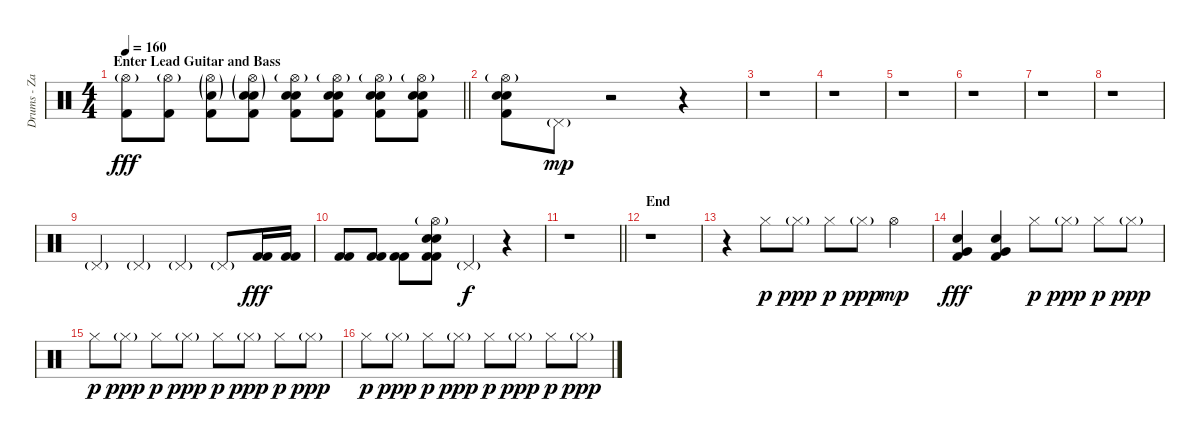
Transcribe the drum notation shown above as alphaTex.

\track ("Drums - Zac Farro" "Drums - Za") {instrument percussion}
\staff {score}
\articulation defaults
\ts (4 4)
\section ("" "Enter Lead Guitar and Bass")
\tempo 160
\clef neutral
\barLineRight lightlight
\ks c
("Hi-Hat (open)"{g} "Kick (hit) 2").8{dy fff} ("Hi-Hat (open)"{g} "Kick (hit) 2").8 ("Hi-Hat (open)"{g} "Electric Snare (hit)"{g} "Kick (hit) 2").8 ("Hi-Hat (open)"{g} "Electric Snare (hit)"{g} "Electric Snare (hit)"{g} "Kick (hit) 2").8 ("Hi-Hat (open)"{g} "Electric Snare (hit)" "Electric Snare (hit)" "Kick (hit) 2").8 ("Hi-Hat (open)"{g} "Electric Snare (hit)" "Electric Snare (hit)" "Kick (hit) 2").8 ("Hi-Hat (open)"{g} "Electric Snare (hit)" "Electric Snare (hit)" "Kick (hit) 2").8 ("Hi-Hat (open)"{g} "Electric Snare (hit)" "Electric Snare (hit)" "Kick (hit) 2").8 |
("Hi-Hat (open)"{g} "Electric Snare (hit)" "Electric Snare (hit)" "Kick (hit) 2").8 "Pedal Hi-Hat (hit)"{g}.8{dy mp} r.2 r.4 |
r.1 |
r.1 |
r.1 |
r.1 |
r.1 |
r.1 |
"Pedal Hi-Hat (hit)"{g}.4 "Pedal Hi-Hat (hit)"{g}.4 "Pedal Hi-Hat (hit)"{g}.4 "Pedal Hi-Hat (hit)"{g}.8 ("Kick (hit) 2" "Kick (hit) 2").16{dy fff} ("Kick (hit) 2" "Kick (hit) 2").16 |
("Kick (hit) 2" "Kick (hit) 2").8 ("Kick (hit) 2" "Kick (hit) 2").8 ("Kick (hit) 2" "Kick (hit) 2").8 ("Hi-Hat (open)"{g} "Electric Snare (hit)" "Electric Snare (hit)" "Kick (hit) 2" "Kick (hit) 2").8 "Pedal Hi-Hat (hit)"{g}.4{dy f} r.4 |
\barLineRight lightlight
r.1 |
\section ("" "End")
r.1 |
r.4 "Hi-Hat (closed)".8{dy p} "Hi-Hat (closed)"{g}.8{dy ppp} "Hi-Hat (closed)".8{dy p} "Hi-Hat (closed)"{g}.8{dy ppp} "Hi-Hat (open)".4{dy mp} |
("Electric Snare (hit)" "Very Low Tom (hit)" "Kick (hit) 2").4{dy fff} ("Electric Snare (hit)" "Very Low Tom (hit)" "Kick (hit) 2").4 "Hi-Hat (closed)".8{dy p} "Hi-Hat (closed)"{g}.8{dy ppp} "Hi-Hat (closed)".8{dy p} "Hi-Hat (closed)"{g}.8{dy ppp} |
"Hi-Hat (closed)".8{dy p} "Hi-Hat (closed)"{g}.8{dy ppp} "Hi-Hat (closed)".8{dy p} "Hi-Hat (closed)"{g}.8{dy ppp} "Hi-Hat (closed)".8{dy p} "Hi-Hat (closed)"{g}.8{dy ppp} "Hi-Hat (closed)".8{dy p} "Hi-Hat (closed)"{g}.8{dy ppp} |
"Hi-Hat (closed)".8{dy p} "Hi-Hat (closed)"{g}.8{dy ppp} "Hi-Hat (closed)".8{dy p} "Hi-Hat (closed)"{g}.8{dy ppp} "Hi-Hat (closed)".8{dy p} "Hi-Hat (closed)"{g}.8{dy ppp} "Hi-Hat (closed)".8{dy p} "Hi-Hat (closed)"{g}.8{dy ppp}
